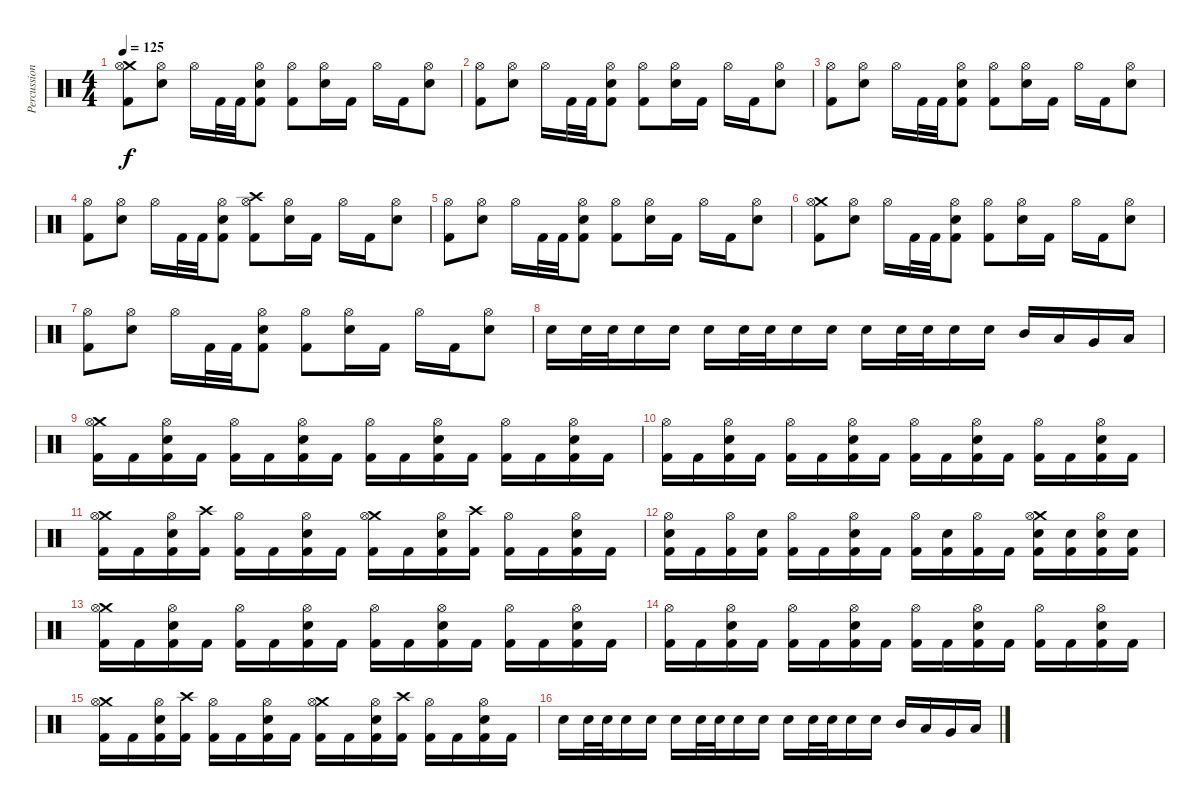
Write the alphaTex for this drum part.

\track ("Percussion" "Percussion") {instrument percussion}
\staff {score}
\articulation defaults
\ts (4 4)
\tempo 125
\clef neutral
\ks c
("Crash medium (hit)" "Hi-Hat (open)" "Kick (hit) 2").8{dy f} ("Hi-Hat (open)" "Electric Snare (hit)").8 "Hi-Hat (open)".16 "Kick (hit) 2".32 "Kick (hit) 2".32 ("Hi-Hat (open)" "Electric Snare (hit)" "Kick (hit) 2").8 ("Hi-Hat (open)" "Kick (hit) 2").8 ("Hi-Hat (open)" "Electric Snare (hit)").16 "Kick (hit) 2".16 "Hi-Hat (open)".16 "Kick (hit) 2".16 ("Hi-Hat (open)" "Electric Snare (hit)").8 |
("Hi-Hat (open)" "Kick (hit) 2").8 ("Hi-Hat (open)" "Electric Snare (hit)").8 "Hi-Hat (open)".16 "Kick (hit) 2".32 "Kick (hit) 2".32 ("Hi-Hat (open)" "Electric Snare (hit)" "Kick (hit) 2").8 ("Hi-Hat (open)" "Kick (hit) 2").8 ("Hi-Hat (open)" "Electric Snare (hit)").16 "Kick (hit) 2".16 "Hi-Hat (open)".16 "Kick (hit) 2".16 ("Hi-Hat (open)" "Electric Snare (hit)").8 |
("Hi-Hat (open)" "Kick (hit) 2").8 ("Hi-Hat (open)" "Electric Snare (hit)").8 "Hi-Hat (open)".16 "Kick (hit) 2".32 "Kick (hit) 2".32 ("Hi-Hat (open)" "Electric Snare (hit)" "Kick (hit) 2").8 ("Hi-Hat (open)" "Kick (hit) 2").8 ("Hi-Hat (open)" "Electric Snare (hit)").16 "Kick (hit) 2".16 "Hi-Hat (open)".16 "Kick (hit) 2".16 ("Hi-Hat (open)" "Electric Snare (hit)").8 |
("Hi-Hat (open)" "Kick (hit) 2").8 ("Hi-Hat (open)" "Electric Snare (hit)").8 "Hi-Hat (open)".16 "Kick (hit) 2".32 "Kick (hit) 2".32 ("Hi-Hat (open)" "Electric Snare (hit)" "Kick (hit) 2").8 ("Crash high (hit)" "Hi-Hat (open)" "Kick (hit) 2").8 ("Hi-Hat (open)" "Electric Snare (hit)").16 "Kick (hit) 2".16 "Hi-Hat (open)".16 "Kick (hit) 2".16 ("Hi-Hat (open)" "Electric Snare (hit)").8 |
("Hi-Hat (open)" "Kick (hit) 2").8 ("Hi-Hat (open)" "Electric Snare (hit)").8 "Hi-Hat (open)".16 "Kick (hit) 2".32 "Kick (hit) 2".32 ("Hi-Hat (open)" "Electric Snare (hit)" "Kick (hit) 2").8 ("Hi-Hat (open)" "Kick (hit) 2").8 ("Hi-Hat (open)" "Electric Snare (hit)").16 "Kick (hit) 2".16 "Hi-Hat (open)".16 "Kick (hit) 2".16 ("Hi-Hat (open)" "Electric Snare (hit)").8 |
("Crash medium (hit)" "Hi-Hat (open)" "Kick (hit) 2").8 ("Hi-Hat (open)" "Electric Snare (hit)").8 "Hi-Hat (open)".16 "Kick (hit) 2".32 "Kick (hit) 2".32 ("Hi-Hat (open)" "Electric Snare (hit)" "Kick (hit) 2").8 ("Hi-Hat (open)" "Kick (hit) 2").8 ("Hi-Hat (open)" "Electric Snare (hit)").16 "Kick (hit) 2".16 "Hi-Hat (open)".16 "Kick (hit) 2".16 ("Hi-Hat (open)" "Electric Snare (hit)").8 |
("Hi-Hat (open)" "Kick (hit) 2").8 ("Hi-Hat (open)" "Electric Snare (hit)").8 "Hi-Hat (open)".16 "Kick (hit) 2".32 "Kick (hit) 2".32 ("Hi-Hat (open)" "Electric Snare (hit)" "Kick (hit) 2").8 ("Hi-Hat (open)" "Kick (hit) 2").8 ("Hi-Hat (open)" "Electric Snare (hit)").16 "Kick (hit) 2".16 "Hi-Hat (open)".16 "Kick (hit) 2".16 ("Hi-Hat (open)" "Electric Snare (hit)").8 |
"Electric Snare (hit)".16 "Electric Snare (hit)".32 "Electric Snare (hit)".32 "Electric Snare (hit)".16 "Electric Snare (hit)".16 "Electric Snare (hit)".16 "Electric Snare (hit)".32 "Electric Snare (hit)".32 "Electric Snare (hit)".16 "Electric Snare (hit)".16 "Electric Snare (hit)".16 "Electric Snare (hit)".32 "Electric Snare (hit)".32 "Electric Snare (hit)".16 "Electric Snare (hit)".16 "Mid Tom (hit)".16 "Low Tom (hit)".16 "Very Low Tom (hit)".16 "Low Floor Tom (hit)".16 |
("Crash medium (hit)" "Hi-Hat (open)" "Kick (hit) 2").16 "Kick (hit) 2".16 ("Hi-Hat (open)" "Electric Snare (hit)" "Kick (hit) 2").16 "Kick (hit) 2".16 ("Hi-Hat (open)" "Kick (hit) 2").16 "Kick (hit) 2".16 ("Hi-Hat (open)" "Electric Snare (hit)" "Kick (hit) 2").16 "Kick (hit) 2".16 ("Hi-Hat (open)" "Kick (hit) 2").16 "Kick (hit) 2".16 ("Hi-Hat (open)" "Electric Snare (hit)" "Kick (hit) 2").16 "Kick (hit) 2".16 ("Hi-Hat (open)" "Kick (hit) 2").16 "Kick (hit) 2".16 ("Hi-Hat (open)" "Electric Snare (hit)" "Kick (hit) 2").16 "Kick (hit) 2".16 |
("Hi-Hat (open)" "Kick (hit) 2").16 "Kick (hit) 2".16 ("Hi-Hat (open)" "Electric Snare (hit)" "Kick (hit) 2").16 "Kick (hit) 2".16 ("Hi-Hat (open)" "Kick (hit) 2").16 "Kick (hit) 2".16 ("Hi-Hat (open)" "Electric Snare (hit)" "Kick (hit) 2").16 "Kick (hit) 2".16 ("Hi-Hat (open)" "Kick (hit) 2").16 "Kick (hit) 2".16 ("Hi-Hat (open)" "Electric Snare (hit)" "Kick (hit) 2").16 "Kick (hit) 2".16 ("Hi-Hat (open)" "Kick (hit) 2").16 "Kick (hit) 2".16 ("Hi-Hat (open)" "Electric Snare (hit)" "Kick (hit) 2").16 "Kick (hit) 2".16 |
("Crash medium (hit)" "Hi-Hat (open)" "Kick (hit) 2").16 "Kick (hit) 2".16 ("Hi-Hat (open)" "Electric Snare (hit)" "Kick (hit) 2").16 ("Crash high (hit)" "Kick (hit) 2").16 ("Hi-Hat (open)" "Kick (hit) 2").16 "Kick (hit) 2".16 ("Hi-Hat (open)" "Electric Snare (hit)" "Kick (hit) 2").16 "Kick (hit) 2".16 ("Crash medium (hit)" "Hi-Hat (open)" "Kick (hit) 2").16 "Kick (hit) 2".16 ("Hi-Hat (open)" "Electric Snare (hit)" "Kick (hit) 2").16 ("Crash high (hit)" "Kick (hit) 2").16 ("Hi-Hat (open)" "Kick (hit) 2").16 "Kick (hit) 2".16 ("Hi-Hat (open)" "Electric Snare (hit)" "Kick (hit) 2").16 "Kick (hit) 2".16 |
("Hi-Hat (open)" "Electric Snare (hit)" "Kick (hit) 2").16 "Kick (hit) 2".16 ("Hi-Hat (open)" "Kick (hit) 2").16 ("Electric Snare (hit)" "Kick (hit) 2").16 ("Hi-Hat (open)" "Kick (hit) 2").16 "Kick (hit) 2".16 ("Hi-Hat (open)" "Electric Snare (hit)" "Kick (hit) 2").16 "Kick (hit) 2".16 ("Hi-Hat (open)" "Kick (hit) 2").16 ("Electric Snare (hit)" "Kick (hit) 2").16 ("Hi-Hat (open)" "Kick (hit) 2").16 "Kick (hit) 2".16 ("Crash medium (hit)" "Hi-Hat (open)" "Electric Snare (hit)" "Kick (hit) 2").16 ("Electric Snare (hit)" "Kick (hit) 2").16 ("Hi-Hat (open)" "Electric Snare (hit)" "Kick (hit) 2").16 ("Electric Snare (hit)" "Kick (hit) 2").16 |
("Crash medium (hit)" "Hi-Hat (open)" "Kick (hit) 2").16 "Kick (hit) 2".16 ("Hi-Hat (open)" "Electric Snare (hit)" "Kick (hit) 2").16 "Kick (hit) 2".16 ("Hi-Hat (open)" "Kick (hit) 2").16 "Kick (hit) 2".16 ("Hi-Hat (open)" "Electric Snare (hit)" "Kick (hit) 2").16 "Kick (hit) 2".16 ("Hi-Hat (open)" "Kick (hit) 2").16 "Kick (hit) 2".16 ("Hi-Hat (open)" "Electric Snare (hit)" "Kick (hit) 2").16 "Kick (hit) 2".16 ("Hi-Hat (open)" "Kick (hit) 2").16 "Kick (hit) 2".16 ("Hi-Hat (open)" "Electric Snare (hit)" "Kick (hit) 2").16 "Kick (hit) 2".16 |
("Hi-Hat (open)" "Kick (hit) 2").16 "Kick (hit) 2".16 ("Hi-Hat (open)" "Electric Snare (hit)" "Kick (hit) 2").16 "Kick (hit) 2".16 ("Hi-Hat (open)" "Kick (hit) 2").16 "Kick (hit) 2".16 ("Hi-Hat (open)" "Electric Snare (hit)" "Kick (hit) 2").16 "Kick (hit) 2".16 ("Hi-Hat (open)" "Kick (hit) 2").16 "Kick (hit) 2".16 ("Hi-Hat (open)" "Electric Snare (hit)" "Kick (hit) 2").16 "Kick (hit) 2".16 ("Hi-Hat (open)" "Kick (hit) 2").16 "Kick (hit) 2".16 ("Hi-Hat (open)" "Electric Snare (hit)" "Kick (hit) 2").16 "Kick (hit) 2".16 |
("Crash medium (hit)" "Hi-Hat (open)" "Kick (hit) 2").16 "Kick (hit) 2".16 ("Hi-Hat (open)" "Electric Snare (hit)" "Kick (hit) 2").16 ("Crash high (hit)" "Kick (hit) 2").16 ("Hi-Hat (open)" "Kick (hit) 2").16 "Kick (hit) 2".16 ("Hi-Hat (open)" "Electric Snare (hit)" "Kick (hit) 2").16 "Kick (hit) 2".16 ("Crash medium (hit)" "Hi-Hat (open)" "Kick (hit) 2").16 "Kick (hit) 2".16 ("Hi-Hat (open)" "Electric Snare (hit)" "Kick (hit) 2").16 ("Crash high (hit)" "Kick (hit) 2").16 ("Hi-Hat (open)" "Kick (hit) 2").16 "Kick (hit) 2".16 ("Hi-Hat (open)" "Electric Snare (hit)" "Kick (hit) 2").16 "Kick (hit) 2".16 |
"Electric Snare (hit)".16 "Electric Snare (hit)".32 "Electric Snare (hit)".32 "Electric Snare (hit)".16 "Electric Snare (hit)".16 "Electric Snare (hit)".16 "Electric Snare (hit)".32 "Electric Snare (hit)".32 "Electric Snare (hit)".16 "Electric Snare (hit)".16 "Electric Snare (hit)".16 "Electric Snare (hit)".32 "Electric Snare (hit)".32 "Electric Snare (hit)".16 "Electric Snare (hit)".16 "Mid Tom (hit)".16 "Low Tom (hit)".16 "Very Low Tom (hit)".16 "Low Floor Tom (hit)".16
